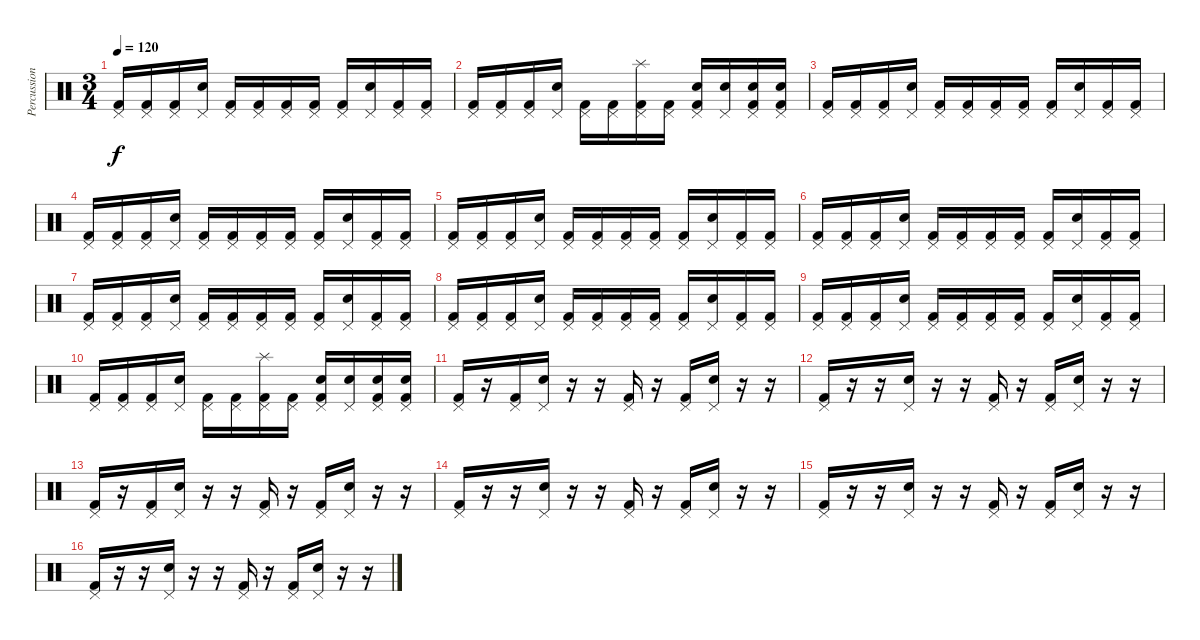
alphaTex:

\track ("Percussion" "Percussion") {instrument percussion}
\staff {score}
\articulation defaults
\ts (3 4)
\tempo 120
\clef neutral
\ks c
("Kick (hit) 2" "Pedal Hi-Hat (hit)").16{dy f} ("Kick (hit) 2" "Pedal Hi-Hat (hit)").16 ("Kick (hit) 2" "Pedal Hi-Hat (hit)").16 ("Pedal Hi-Hat (hit)" "Electric Snare (hit)").16 ("Kick (hit) 2" "Pedal Hi-Hat (hit)").16 ("Kick (hit) 2" "Pedal Hi-Hat (hit)").16 ("Kick (hit) 2" "Pedal Hi-Hat (hit)").16 ("Kick (hit) 2" "Pedal Hi-Hat (hit)").16 ("Kick (hit) 2" "Pedal Hi-Hat (hit)").16 ("Pedal Hi-Hat (hit)" "Electric Snare (hit)").16 ("Kick (hit) 2" "Pedal Hi-Hat (hit)").16 ("Kick (hit) 2" "Pedal Hi-Hat (hit)").16 |
("Kick (hit) 2" "Pedal Hi-Hat (hit)").16 ("Kick (hit) 2" "Pedal Hi-Hat (hit)").16 ("Kick (hit) 2" "Pedal Hi-Hat (hit)").16 ("Pedal Hi-Hat (hit)" "Electric Snare (hit)").16 ("Kick (hit) 2" "Pedal Hi-Hat (hit)").16 ("Kick (hit) 2" "Pedal Hi-Hat (hit)").16 ("Kick (hit) 2" "Pedal Hi-Hat (hit)" "Splash (hit)").16 ("Kick (hit) 2" "Pedal Hi-Hat (hit)").16 ("Kick (hit) 2" "Pedal Hi-Hat (hit)" "Electric Snare (hit)").16 ("Pedal Hi-Hat (hit)" "Electric Snare (hit)").16 ("Kick (hit) 2" "Pedal Hi-Hat (hit)" "Electric Snare (hit)").16 ("Kick (hit) 2" "Pedal Hi-Hat (hit)" "Electric Snare (hit)").16 |
("Kick (hit) 2" "Pedal Hi-Hat (hit)").16 ("Kick (hit) 2" "Pedal Hi-Hat (hit)").16 ("Kick (hit) 2" "Pedal Hi-Hat (hit)").16 ("Pedal Hi-Hat (hit)" "Electric Snare (hit)").16 ("Kick (hit) 2" "Pedal Hi-Hat (hit)").16 ("Kick (hit) 2" "Pedal Hi-Hat (hit)").16 ("Kick (hit) 2" "Pedal Hi-Hat (hit)").16 ("Kick (hit) 2" "Pedal Hi-Hat (hit)").16 ("Kick (hit) 2" "Pedal Hi-Hat (hit)").16 ("Pedal Hi-Hat (hit)" "Electric Snare (hit)").16 ("Kick (hit) 2" "Pedal Hi-Hat (hit)").16 ("Kick (hit) 2" "Pedal Hi-Hat (hit)").16 |
("Kick (hit) 2" "Pedal Hi-Hat (hit)").16 ("Kick (hit) 2" "Pedal Hi-Hat (hit)").16 ("Kick (hit) 2" "Pedal Hi-Hat (hit)").16 ("Pedal Hi-Hat (hit)" "Electric Snare (hit)").16 ("Kick (hit) 2" "Pedal Hi-Hat (hit)").16 ("Kick (hit) 2" "Pedal Hi-Hat (hit)").16 ("Kick (hit) 2" "Pedal Hi-Hat (hit)").16 ("Kick (hit) 2" "Pedal Hi-Hat (hit)").16 ("Kick (hit) 2" "Pedal Hi-Hat (hit)").16 ("Pedal Hi-Hat (hit)" "Electric Snare (hit)").16 ("Kick (hit) 2" "Pedal Hi-Hat (hit)").16 ("Kick (hit) 2" "Pedal Hi-Hat (hit)").16 |
("Kick (hit) 2" "Pedal Hi-Hat (hit)").16 ("Kick (hit) 2" "Pedal Hi-Hat (hit)").16 ("Kick (hit) 2" "Pedal Hi-Hat (hit)").16 ("Pedal Hi-Hat (hit)" "Electric Snare (hit)").16 ("Kick (hit) 2" "Pedal Hi-Hat (hit)").16 ("Kick (hit) 2" "Pedal Hi-Hat (hit)").16 ("Kick (hit) 2" "Pedal Hi-Hat (hit)").16 ("Kick (hit) 2" "Pedal Hi-Hat (hit)").16 ("Kick (hit) 2" "Pedal Hi-Hat (hit)").16 ("Pedal Hi-Hat (hit)" "Electric Snare (hit)").16 ("Kick (hit) 2" "Pedal Hi-Hat (hit)").16 ("Kick (hit) 2" "Pedal Hi-Hat (hit)").16 |
("Kick (hit) 2" "Pedal Hi-Hat (hit)").16 ("Kick (hit) 2" "Pedal Hi-Hat (hit)").16 ("Kick (hit) 2" "Pedal Hi-Hat (hit)").16 ("Pedal Hi-Hat (hit)" "Electric Snare (hit)").16 ("Kick (hit) 2" "Pedal Hi-Hat (hit)").16 ("Kick (hit) 2" "Pedal Hi-Hat (hit)").16 ("Kick (hit) 2" "Pedal Hi-Hat (hit)").16 ("Kick (hit) 2" "Pedal Hi-Hat (hit)").16 ("Kick (hit) 2" "Pedal Hi-Hat (hit)").16 ("Pedal Hi-Hat (hit)" "Electric Snare (hit)").16 ("Kick (hit) 2" "Pedal Hi-Hat (hit)").16 ("Kick (hit) 2" "Pedal Hi-Hat (hit)").16 |
("Kick (hit) 2" "Pedal Hi-Hat (hit)").16 ("Kick (hit) 2" "Pedal Hi-Hat (hit)").16 ("Kick (hit) 2" "Pedal Hi-Hat (hit)").16 ("Pedal Hi-Hat (hit)" "Electric Snare (hit)").16 ("Kick (hit) 2" "Pedal Hi-Hat (hit)").16 ("Kick (hit) 2" "Pedal Hi-Hat (hit)").16 ("Kick (hit) 2" "Pedal Hi-Hat (hit)").16 ("Kick (hit) 2" "Pedal Hi-Hat (hit)").16 ("Kick (hit) 2" "Pedal Hi-Hat (hit)").16 ("Pedal Hi-Hat (hit)" "Electric Snare (hit)").16 ("Kick (hit) 2" "Pedal Hi-Hat (hit)").16 ("Kick (hit) 2" "Pedal Hi-Hat (hit)").16 |
("Kick (hit) 2" "Pedal Hi-Hat (hit)").16 ("Kick (hit) 2" "Pedal Hi-Hat (hit)").16 ("Kick (hit) 2" "Pedal Hi-Hat (hit)").16 ("Pedal Hi-Hat (hit)" "Electric Snare (hit)").16 ("Kick (hit) 2" "Pedal Hi-Hat (hit)").16 ("Kick (hit) 2" "Pedal Hi-Hat (hit)").16 ("Kick (hit) 2" "Pedal Hi-Hat (hit)").16 ("Kick (hit) 2" "Pedal Hi-Hat (hit)").16 ("Kick (hit) 2" "Pedal Hi-Hat (hit)").16 ("Pedal Hi-Hat (hit)" "Electric Snare (hit)").16 ("Kick (hit) 2" "Pedal Hi-Hat (hit)").16 ("Kick (hit) 2" "Pedal Hi-Hat (hit)").16 |
("Kick (hit) 2" "Pedal Hi-Hat (hit)").16 ("Kick (hit) 2" "Pedal Hi-Hat (hit)").16 ("Kick (hit) 2" "Pedal Hi-Hat (hit)").16 ("Pedal Hi-Hat (hit)" "Electric Snare (hit)").16 ("Kick (hit) 2" "Pedal Hi-Hat (hit)").16 ("Kick (hit) 2" "Pedal Hi-Hat (hit)").16 ("Kick (hit) 2" "Pedal Hi-Hat (hit)").16 ("Kick (hit) 2" "Pedal Hi-Hat (hit)").16 ("Kick (hit) 2" "Pedal Hi-Hat (hit)").16 ("Pedal Hi-Hat (hit)" "Electric Snare (hit)").16 ("Kick (hit) 2" "Pedal Hi-Hat (hit)").16 ("Kick (hit) 2" "Pedal Hi-Hat (hit)").16 |
("Kick (hit) 2" "Pedal Hi-Hat (hit)").16 ("Kick (hit) 2" "Pedal Hi-Hat (hit)").16 ("Kick (hit) 2" "Pedal Hi-Hat (hit)").16 ("Pedal Hi-Hat (hit)" "Electric Snare (hit)").16 ("Kick (hit) 2" "Pedal Hi-Hat (hit)").16 ("Kick (hit) 2" "Pedal Hi-Hat (hit)").16 ("Kick (hit) 2" "Pedal Hi-Hat (hit)" "Splash (hit)").16 ("Kick (hit) 2" "Pedal Hi-Hat (hit)").16 ("Kick (hit) 2" "Pedal Hi-Hat (hit)" "Electric Snare (hit)").16 ("Pedal Hi-Hat (hit)" "Electric Snare (hit)").16 ("Kick (hit) 2" "Pedal Hi-Hat (hit)" "Electric Snare (hit)").16 ("Kick (hit) 2" "Pedal Hi-Hat (hit)" "Electric Snare (hit)").16 |
("Kick (hit) 2" "Pedal Hi-Hat (hit)").16 r.16 ("Kick (hit) 2" "Pedal Hi-Hat (hit)").16 ("Pedal Hi-Hat (hit)" "Electric Snare (hit)").16 r.16 r.16 ("Kick (hit) 2" "Pedal Hi-Hat (hit)").16 r.16 ("Kick (hit) 2" "Pedal Hi-Hat (hit)").16 ("Pedal Hi-Hat (hit)" "Electric Snare (hit)").16 r.16 r.16 |
("Kick (hit) 2" "Pedal Hi-Hat (hit)").16 r.16 r.16 ("Pedal Hi-Hat (hit)" "Electric Snare (hit)").16 r.16 r.16 ("Kick (hit) 2" "Pedal Hi-Hat (hit)").16 r.16 ("Kick (hit) 2" "Pedal Hi-Hat (hit)").16 ("Pedal Hi-Hat (hit)" "Electric Snare (hit)").16 r.16 r.16 |
("Kick (hit) 2" "Pedal Hi-Hat (hit)").16 r.16 ("Kick (hit) 2" "Pedal Hi-Hat (hit)").16 ("Pedal Hi-Hat (hit)" "Electric Snare (hit)").16 r.16 r.16 ("Kick (hit) 2" "Pedal Hi-Hat (hit)").16 r.16 ("Kick (hit) 2" "Pedal Hi-Hat (hit)").16 ("Pedal Hi-Hat (hit)" "Electric Snare (hit)").16 r.16 r.16 |
("Kick (hit) 2" "Pedal Hi-Hat (hit)").16 r.16 r.16 ("Pedal Hi-Hat (hit)" "Electric Snare (hit)").16 r.16 r.16 ("Kick (hit) 2" "Pedal Hi-Hat (hit)").16 r.16 ("Kick (hit) 2" "Pedal Hi-Hat (hit)").16 ("Pedal Hi-Hat (hit)" "Electric Snare (hit)").16 r.16 r.16 |
("Kick (hit) 2" "Pedal Hi-Hat (hit)").16 r.16 r.16 ("Pedal Hi-Hat (hit)" "Electric Snare (hit)").16 r.16 r.16 ("Kick (hit) 2" "Pedal Hi-Hat (hit)").16 r.16 ("Kick (hit) 2" "Pedal Hi-Hat (hit)").16 ("Pedal Hi-Hat (hit)" "Electric Snare (hit)").16 r.16 r.16 |
("Kick (hit) 2" "Pedal Hi-Hat (hit)").16 r.16 r.16 ("Pedal Hi-Hat (hit)" "Electric Snare (hit)").16 r.16 r.16 ("Kick (hit) 2" "Pedal Hi-Hat (hit)").16 r.16 ("Kick (hit) 2" "Pedal Hi-Hat (hit)").16 ("Pedal Hi-Hat (hit)" "Electric Snare (hit)").16 r.16 r.16
